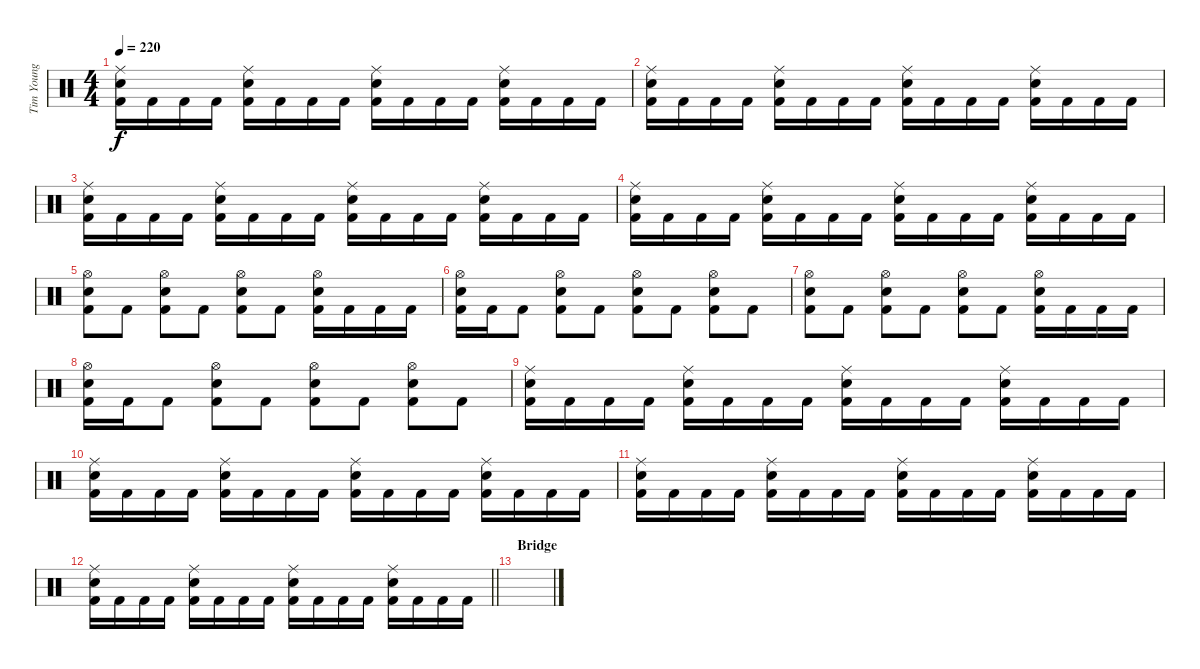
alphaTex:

\track ("Tim Young - Drums" "Tim Young ") {instrument percussion}
\staff {score}
\articulation defaults
\ts (4 4)
\tempo 220
\clef neutral
\ks c
("Ride (middle)" "Electric Snare (hit)" "Kick (hit) 2").16{dy f} "Kick (hit) 2".16 "Kick (hit) 2".16 "Kick (hit) 2".16 ("Ride (middle)" "Electric Snare (hit)" "Kick (hit) 2").16 "Kick (hit) 2".16 "Kick (hit) 2".16 "Kick (hit) 2".16 ("Ride (middle)" "Electric Snare (hit)" "Kick (hit) 2").16 "Kick (hit) 2".16 "Kick (hit) 2".16 "Kick (hit) 2".16 ("Ride (middle)" "Electric Snare (hit)" "Kick (hit) 2").16 "Kick (hit) 2".16 "Kick (hit) 2".16 "Kick (hit) 2".16 |
("Ride (middle)" "Electric Snare (hit)" "Kick (hit) 2").16 "Kick (hit) 2".16 "Kick (hit) 2".16 "Kick (hit) 2".16 ("Ride (middle)" "Electric Snare (hit)" "Kick (hit) 2").16 "Kick (hit) 2".16 "Kick (hit) 2".16 "Kick (hit) 2".16 ("Ride (middle)" "Electric Snare (hit)" "Kick (hit) 2").16 "Kick (hit) 2".16 "Kick (hit) 2".16 "Kick (hit) 2".16 ("Ride (middle)" "Electric Snare (hit)" "Kick (hit) 2").16 "Kick (hit) 2".16 "Kick (hit) 2".16 "Kick (hit) 2".16 |
("Ride (middle)" "Electric Snare (hit)" "Kick (hit) 2").16 "Kick (hit) 2".16 "Kick (hit) 2".16 "Kick (hit) 2".16 ("Ride (middle)" "Electric Snare (hit)" "Kick (hit) 2").16 "Kick (hit) 2".16 "Kick (hit) 2".16 "Kick (hit) 2".16 ("Ride (middle)" "Electric Snare (hit)" "Kick (hit) 2").16 "Kick (hit) 2".16 "Kick (hit) 2".16 "Kick (hit) 2".16 ("Ride (middle)" "Electric Snare (hit)" "Kick (hit) 2").16 "Kick (hit) 2".16 "Kick (hit) 2".16 "Kick (hit) 2".16 |
("Ride (middle)" "Electric Snare (hit)" "Kick (hit) 2").16 "Kick (hit) 2".16 "Kick (hit) 2".16 "Kick (hit) 2".16 ("Ride (middle)" "Electric Snare (hit)" "Kick (hit) 2").16 "Kick (hit) 2".16 "Kick (hit) 2".16 "Kick (hit) 2".16 ("Ride (middle)" "Electric Snare (hit)" "Kick (hit) 2").16 "Kick (hit) 2".16 "Kick (hit) 2".16 "Kick (hit) 2".16 ("Ride (middle)" "Electric Snare (hit)" "Kick (hit) 2").16 "Kick (hit) 2".16 "Kick (hit) 2".16 "Kick (hit) 2".16 |
("Hi-Hat (open)" "Electric Snare (hit)" "Kick (hit) 2").8 "Kick (hit) 2".8 ("Hi-Hat (open)" "Electric Snare (hit)" "Kick (hit) 2").8 "Kick (hit) 2".8 ("Hi-Hat (open)" "Electric Snare (hit)" "Kick (hit) 2").8 "Kick (hit) 2".8 ("Hi-Hat (open)" "Electric Snare (hit)" "Kick (hit) 2").16 "Kick (hit) 2".16 "Kick (hit) 2".16 "Kick (hit) 2".16 |
("Hi-Hat (open)" "Electric Snare (hit)" "Kick (hit) 2").16 "Kick (hit) 2".16 "Kick (hit) 2".8 ("Hi-Hat (open)" "Electric Snare (hit)" "Kick (hit) 2").8 "Kick (hit) 2".8 ("Hi-Hat (open)" "Electric Snare (hit)" "Kick (hit) 2").8 "Kick (hit) 2".8 ("Hi-Hat (open)" "Electric Snare (hit)" "Kick (hit) 2").8 "Kick (hit) 2".8 |
("Hi-Hat (open)" "Electric Snare (hit)" "Kick (hit) 2").8 "Kick (hit) 2".8 ("Hi-Hat (open)" "Electric Snare (hit)" "Kick (hit) 2").8 "Kick (hit) 2".8 ("Hi-Hat (open)" "Electric Snare (hit)" "Kick (hit) 2").8 "Kick (hit) 2".8 ("Hi-Hat (open)" "Electric Snare (hit)" "Kick (hit) 2").16 "Kick (hit) 2".16 "Kick (hit) 2".16 "Kick (hit) 2".16 |
("Hi-Hat (open)" "Electric Snare (hit)" "Kick (hit) 2").16 "Kick (hit) 2".16 "Kick (hit) 2".8 ("Hi-Hat (open)" "Electric Snare (hit)" "Kick (hit) 2").8 "Kick (hit) 2".8 ("Hi-Hat (open)" "Electric Snare (hit)" "Kick (hit) 2").8 "Kick (hit) 2".8 ("Hi-Hat (open)" "Electric Snare (hit)" "Kick (hit) 2").8 "Kick (hit) 2".8 |
("Ride (middle)" "Electric Snare (hit)" "Kick (hit) 2").16 "Kick (hit) 2".16 "Kick (hit) 2".16 "Kick (hit) 2".16 ("Ride (middle)" "Electric Snare (hit)" "Kick (hit) 2").16 "Kick (hit) 2".16 "Kick (hit) 2".16 "Kick (hit) 2".16 ("Ride (middle)" "Electric Snare (hit)" "Kick (hit) 2").16 "Kick (hit) 2".16 "Kick (hit) 2".16 "Kick (hit) 2".16 ("Ride (middle)" "Electric Snare (hit)" "Kick (hit) 2").16 "Kick (hit) 2".16 "Kick (hit) 2".16 "Kick (hit) 2".16 |
("Ride (middle)" "Electric Snare (hit)" "Kick (hit) 2").16 "Kick (hit) 2".16 "Kick (hit) 2".16 "Kick (hit) 2".16 ("Ride (middle)" "Electric Snare (hit)" "Kick (hit) 2").16 "Kick (hit) 2".16 "Kick (hit) 2".16 "Kick (hit) 2".16 ("Ride (middle)" "Electric Snare (hit)" "Kick (hit) 2").16 "Kick (hit) 2".16 "Kick (hit) 2".16 "Kick (hit) 2".16 ("Ride (middle)" "Electric Snare (hit)" "Kick (hit) 2").16 "Kick (hit) 2".16 "Kick (hit) 2".16 "Kick (hit) 2".16 |
("Ride (middle)" "Electric Snare (hit)" "Kick (hit) 2").16 "Kick (hit) 2".16 "Kick (hit) 2".16 "Kick (hit) 2".16 ("Ride (middle)" "Electric Snare (hit)" "Kick (hit) 2").16 "Kick (hit) 2".16 "Kick (hit) 2".16 "Kick (hit) 2".16 ("Ride (middle)" "Electric Snare (hit)" "Kick (hit) 2").16 "Kick (hit) 2".16 "Kick (hit) 2".16 "Kick (hit) 2".16 ("Ride (middle)" "Electric Snare (hit)" "Kick (hit) 2").16 "Kick (hit) 2".16 "Kick (hit) 2".16 "Kick (hit) 2".16 |
\barLineRight lightlight
("Ride (middle)" "Electric Snare (hit)" "Kick (hit) 2").16 "Kick (hit) 2".16 "Kick (hit) 2".16 "Kick (hit) 2".16 ("Ride (middle)" "Electric Snare (hit)" "Kick (hit) 2").16 "Kick (hit) 2".16 "Kick (hit) 2".16 "Kick (hit) 2".16 ("Ride (middle)" "Electric Snare (hit)" "Kick (hit) 2").16 "Kick (hit) 2".16 "Kick (hit) 2".16 "Kick (hit) 2".16 ("Ride (middle)" "Electric Snare (hit)" "Kick (hit) 2").16 "Kick (hit) 2".16 "Kick (hit) 2".16 "Kick (hit) 2".16 |
\section ("" "Bridge")
